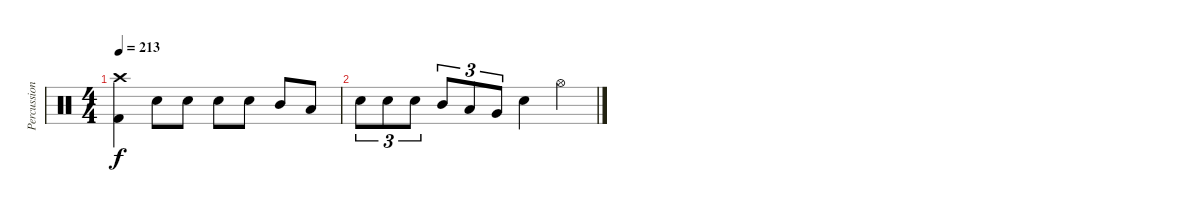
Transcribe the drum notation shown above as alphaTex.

\track ("Percussion" "Percussion") {instrument percussion}
\staff {score}
\articulation defaults
\ts (4 4)
\tempo 213
\clef neutral
\ks c
("Crash high (hit)" "Kick (hit) 2").4{dy f} "Electric Snare (hit)".8 "Electric Snare (hit)".8 "Electric Snare (hit)".8 "Electric Snare (hit)".8 "Mid Tom (hit)".8 "Low Tom (hit)".8 |
"Electric Snare (hit)".8{tu (3 2)} "Electric Snare (hit)".8{tu (3 2)} "Electric Snare (hit)".8{tu (3 2)} "Mid Tom (hit)".8{tu (3 2)} "Low Tom (hit)".8{tu (3 2)} "Very Low Tom (hit)".8{tu (3 2)} "Electric Snare (hit)".4 "Hi-Hat (open)".4
